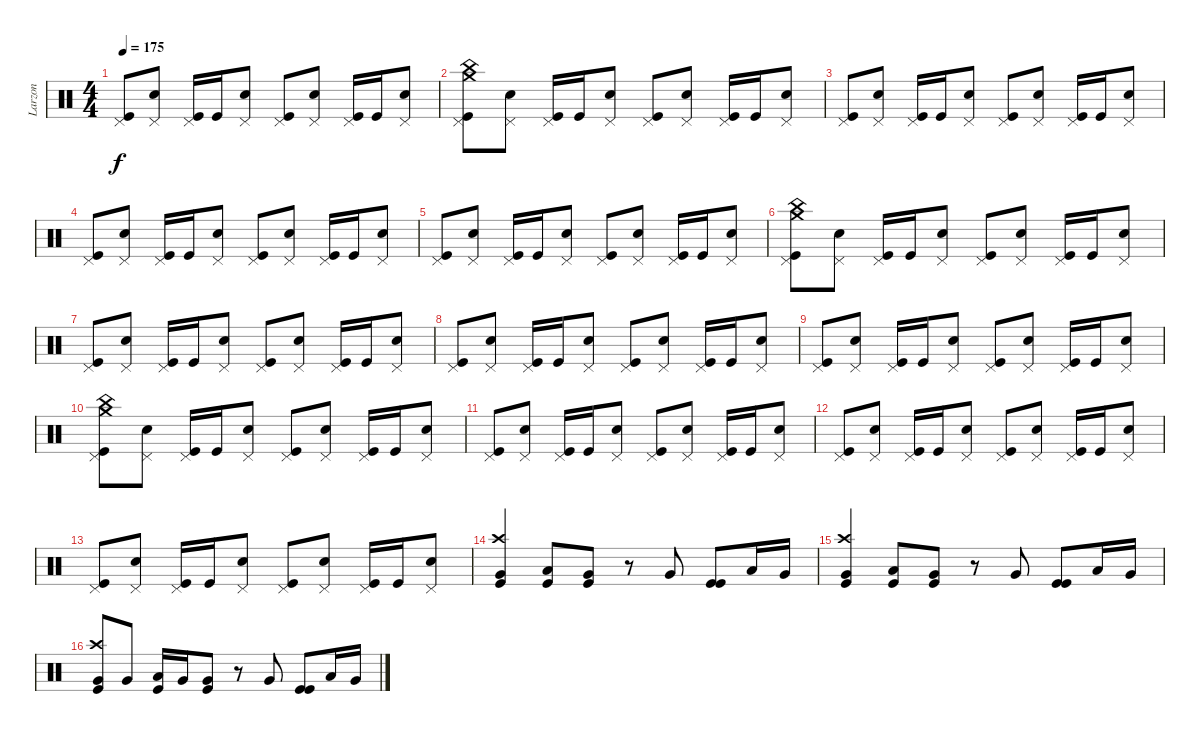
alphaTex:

\track ("Larzon" "Larzon") {instrument percussion}
\staff {score}
\articulation defaults
\ts (4 4)
\tempo 175
\clef neutral
\ks c
("Pedal Hi-Hat (hit)" "Kick (hit)").8{dy f} ("Snare (hit) 2" "Pedal Hi-Hat (hit)").8 ("Kick (hit)" "Pedal Hi-Hat (hit)").16 "Kick (hit)".16 ("Snare (hit) 2" "Pedal Hi-Hat (hit)").8 ("Kick (hit)" "Pedal Hi-Hat (hit)").8 ("Snare (hit) 2" "Pedal Hi-Hat (hit)").8 ("Kick (hit)" "Pedal Hi-Hat (hit)").16 "Kick (hit)".16 ("Snare (hit) 2" "Pedal Hi-Hat (hit)").8 |
("Kick (hit)" "Pedal Hi-Hat (hit)" "Crash medium (hit)" "China (hit)").8 ("Snare (hit) 2" "Pedal Hi-Hat (hit)").8 ("Kick (hit)" "Pedal Hi-Hat (hit)").16 "Kick (hit)".16 ("Snare (hit) 2" "Pedal Hi-Hat (hit)").8 ("Pedal Hi-Hat (hit)" "Kick (hit)").8 ("Snare (hit) 2" "Pedal Hi-Hat (hit)").8 ("Kick (hit)" "Pedal Hi-Hat (hit)").16 "Kick (hit)".16 ("Snare (hit) 2" "Pedal Hi-Hat (hit)").8 |
("Pedal Hi-Hat (hit)" "Kick (hit)").8 ("Snare (hit) 2" "Pedal Hi-Hat (hit)").8 ("Kick (hit)" "Pedal Hi-Hat (hit)").16 "Kick (hit)".16 ("Snare (hit) 2" "Pedal Hi-Hat (hit)").8 ("Kick (hit)" "Pedal Hi-Hat (hit)").8 ("Snare (hit) 2" "Pedal Hi-Hat (hit)").8 ("Kick (hit)" "Pedal Hi-Hat (hit)").16 "Kick (hit)".16 ("Snare (hit) 2" "Pedal Hi-Hat (hit)").8 |
("Pedal Hi-Hat (hit)" "Kick (hit)").8 ("Snare (hit) 2" "Pedal Hi-Hat (hit)").8 ("Kick (hit)" "Pedal Hi-Hat (hit)").16 "Kick (hit)".16 ("Snare (hit) 2" "Pedal Hi-Hat (hit)").8 ("Kick (hit)" "Pedal Hi-Hat (hit)").8 ("Snare (hit) 2" "Pedal Hi-Hat (hit)").8 ("Kick (hit)" "Pedal Hi-Hat (hit)").16 "Kick (hit)".16 ("Snare (hit) 2" "Pedal Hi-Hat (hit)").8 |
("Pedal Hi-Hat (hit)" "Kick (hit)").8 ("Snare (hit) 2" "Pedal Hi-Hat (hit)").8 ("Kick (hit)" "Pedal Hi-Hat (hit)").16 "Kick (hit)".16 ("Snare (hit) 2" "Pedal Hi-Hat (hit)").8 ("Kick (hit)" "Pedal Hi-Hat (hit)").8 ("Snare (hit) 2" "Pedal Hi-Hat (hit)").8 ("Kick (hit)" "Pedal Hi-Hat (hit)").16 "Kick (hit)".16 ("Snare (hit) 2" "Pedal Hi-Hat (hit)").8 |
("Kick (hit)" "Pedal Hi-Hat (hit)" "Crash medium (hit)" "China (hit)").8 ("Snare (hit) 2" "Pedal Hi-Hat (hit)").8 ("Kick (hit)" "Pedal Hi-Hat (hit)").16 "Kick (hit)".16 ("Snare (hit) 2" "Pedal Hi-Hat (hit)").8 ("Pedal Hi-Hat (hit)" "Kick (hit)").8 ("Snare (hit) 2" "Pedal Hi-Hat (hit)").8 ("Kick (hit)" "Pedal Hi-Hat (hit)").16 "Kick (hit)".16 ("Snare (hit) 2" "Pedal Hi-Hat (hit)").8 |
("Pedal Hi-Hat (hit)" "Kick (hit)").8 ("Snare (hit) 2" "Pedal Hi-Hat (hit)").8 ("Kick (hit)" "Pedal Hi-Hat (hit)").16 "Kick (hit)".16 ("Snare (hit) 2" "Pedal Hi-Hat (hit)").8 ("Kick (hit)" "Pedal Hi-Hat (hit)").8 ("Snare (hit) 2" "Pedal Hi-Hat (hit)").8 ("Kick (hit)" "Pedal Hi-Hat (hit)").16 "Kick (hit)".16 ("Snare (hit) 2" "Pedal Hi-Hat (hit)").8 |
("Pedal Hi-Hat (hit)" "Kick (hit)").8 ("Snare (hit) 2" "Pedal Hi-Hat (hit)").8 ("Kick (hit)" "Pedal Hi-Hat (hit)").16 "Kick (hit)".16 ("Snare (hit) 2" "Pedal Hi-Hat (hit)").8 ("Kick (hit)" "Pedal Hi-Hat (hit)").8 ("Snare (hit) 2" "Pedal Hi-Hat (hit)").8 ("Kick (hit)" "Pedal Hi-Hat (hit)").16 "Kick (hit)".16 ("Snare (hit) 2" "Pedal Hi-Hat (hit)").8 |
("Pedal Hi-Hat (hit)" "Kick (hit)").8 ("Snare (hit) 2" "Pedal Hi-Hat (hit)").8 ("Kick (hit)" "Pedal Hi-Hat (hit)").16 "Kick (hit)".16 ("Snare (hit) 2" "Pedal Hi-Hat (hit)").8 ("Kick (hit)" "Pedal Hi-Hat (hit)").8 ("Snare (hit) 2" "Pedal Hi-Hat (hit)").8 ("Kick (hit)" "Pedal Hi-Hat (hit)").16 "Kick (hit)".16 ("Snare (hit) 2" "Pedal Hi-Hat (hit)").8 |
("Kick (hit)" "Pedal Hi-Hat (hit)" "Crash medium (hit)" "China (hit)").8 ("Snare (hit) 2" "Pedal Hi-Hat (hit)").8 ("Kick (hit)" "Pedal Hi-Hat (hit)").16 "Kick (hit)".16 ("Snare (hit) 2" "Pedal Hi-Hat (hit)").8 ("Pedal Hi-Hat (hit)" "Kick (hit)").8 ("Snare (hit) 2" "Pedal Hi-Hat (hit)").8 ("Kick (hit)" "Pedal Hi-Hat (hit)").16 "Kick (hit)".16 ("Snare (hit) 2" "Pedal Hi-Hat (hit)").8 |
("Pedal Hi-Hat (hit)" "Kick (hit)").8 ("Snare (hit) 2" "Pedal Hi-Hat (hit)").8 ("Kick (hit)" "Pedal Hi-Hat (hit)").16 "Kick (hit)".16 ("Snare (hit) 2" "Pedal Hi-Hat (hit)").8 ("Kick (hit)" "Pedal Hi-Hat (hit)").8 ("Snare (hit) 2" "Pedal Hi-Hat (hit)").8 ("Kick (hit)" "Pedal Hi-Hat (hit)").16 "Kick (hit)".16 ("Snare (hit) 2" "Pedal Hi-Hat (hit)").8 |
("Pedal Hi-Hat (hit)" "Kick (hit)").8 ("Snare (hit) 2" "Pedal Hi-Hat (hit)").8 ("Kick (hit)" "Pedal Hi-Hat (hit)").16 "Kick (hit)".16 ("Snare (hit) 2" "Pedal Hi-Hat (hit)").8 ("Kick (hit)" "Pedal Hi-Hat (hit)").8 ("Snare (hit) 2" "Pedal Hi-Hat (hit)").8 ("Kick (hit)" "Pedal Hi-Hat (hit)").16 "Kick (hit)".16 ("Snare (hit) 2" "Pedal Hi-Hat (hit)").8 |
("Pedal Hi-Hat (hit)" "Kick (hit)").8 ("Snare (hit) 2" "Pedal Hi-Hat (hit)").8 ("Kick (hit)" "Pedal Hi-Hat (hit)").16 "Kick (hit)".16 ("Snare (hit) 2" "Pedal Hi-Hat (hit)").8 ("Kick (hit)" "Pedal Hi-Hat (hit)").8 ("Snare (hit) 2" "Pedal Hi-Hat (hit)").8 ("Kick (hit)" "Pedal Hi-Hat (hit)").16 "Kick (hit)".16 ("Snare (hit) 2" "Pedal Hi-Hat (hit)").8 |
("Kick (hit)" "Crash high (hit)" "Very Low Tom (hit)").4 ("Kick (hit)" "Low Tom (hit)").8 ("Kick (hit)" "Very Low Tom (hit)").8 r.8 "Very Low Tom (hit)".8 ("Kick (hit)" "Kick (hit)").8 "Low Tom (hit)".16 "Very Low Tom (hit)".16 |
("Kick (hit)" "Crash high (hit)" "Very Low Tom (hit)").4 ("Kick (hit)" "Low Tom (hit)").8 ("Kick (hit)" "Very Low Tom (hit)").8 r.8 "Very Low Tom (hit)".8 ("Kick (hit)" "Kick (hit)").8 "Low Tom (hit)".16 "Very Low Tom (hit)".16 |
("Very Low Tom (hit)" "Crash high (hit)" "Kick (hit)").8 "Very Low Tom (hit)".8 ("Kick (hit)" "Low Tom (hit)").16 "Very Low Tom (hit)".16 ("Kick (hit)" "Very Low Tom (hit)").8 r.8 "Very Low Tom (hit)".8 ("Kick (hit)" "Kick (hit)").8 "Low Tom (hit)".16 "Very Low Tom (hit)".16
